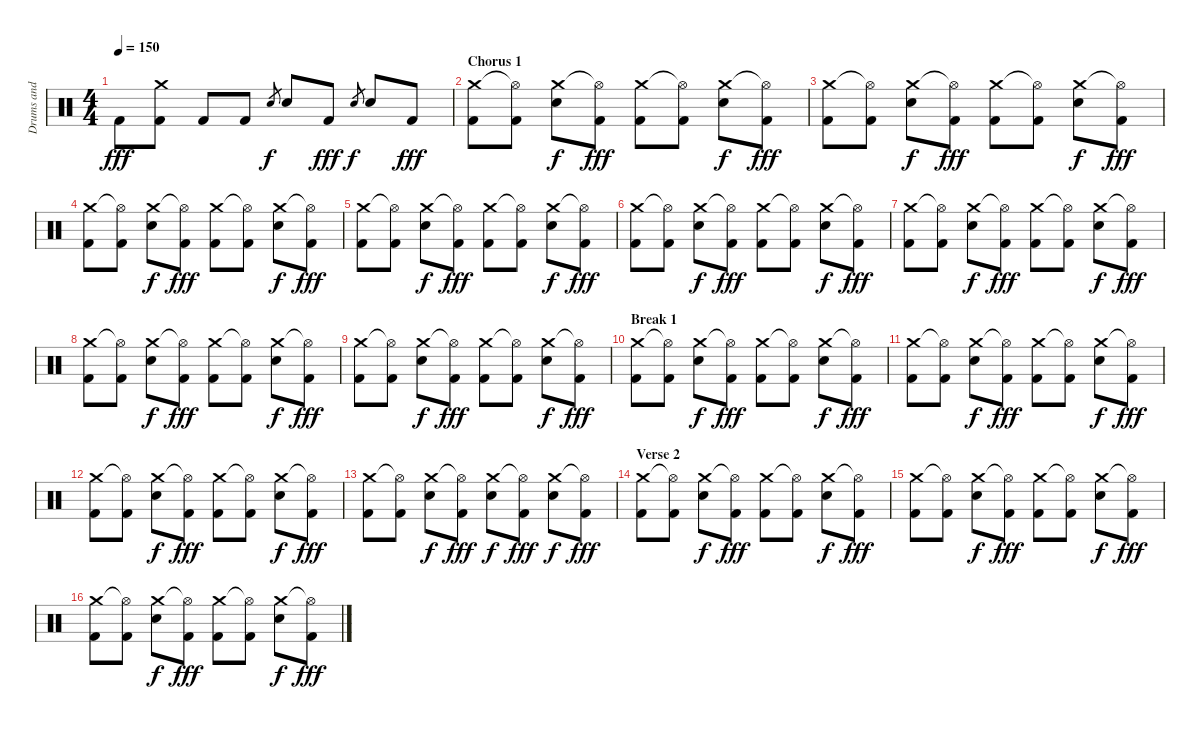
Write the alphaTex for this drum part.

\track ("Drums and Percussion" "Drums and ") {instrument percussion}
\staff {score}
\articulation defaults
\ts (4 4)
\tempo 150
\clef neutral
\ks c "Kick (hit) 2".8{dy fff}
("Crash medium (hit)" "Kick (hit) 2").8 "Kick (hit) 2".8 "Kick (hit) 2".8 "Electric Snare (hit)".8{gr dy f} "Electric Snare (hit)".8 "Kick (hit) 2".8{dy fff} "Electric Snare (hit)".8{gr dy f} "Electric Snare (hit)".8 "Kick (hit) 2".8{dy fff} |
\section ("" "Chorus 1")
("Crash medium (hit)" "Kick (hit) 2").8 ("Hi-Hat (open)"{t} "Kick (hit) 2").8 ("Crash medium (hit)" "Electric Snare (hit)").8{dy f} ("Hi-Hat (open)"{t} "Kick (hit) 2").8{dy fff} ("Crash medium (hit)" "Kick (hit) 2").8 ("Hi-Hat (open)"{t} "Kick (hit) 2").8 ("Crash medium (hit)" "Electric Snare (hit)").8{dy f} ("Hi-Hat (open)"{t} "Kick (hit) 2").8{dy fff} |
("Crash medium (hit)" "Kick (hit) 2").8 ("Hi-Hat (open)"{t} "Kick (hit) 2").8 ("Crash medium (hit)" "Electric Snare (hit)").8{dy f} ("Hi-Hat (open)"{t} "Kick (hit) 2").8{dy fff} ("Crash medium (hit)" "Kick (hit) 2").8 ("Hi-Hat (open)"{t} "Kick (hit) 2").8 ("Crash medium (hit)" "Electric Snare (hit)").8{dy f} ("Hi-Hat (open)"{t} "Kick (hit) 2").8{dy fff} |
("Crash medium (hit)" "Kick (hit) 2").8 ("Hi-Hat (open)"{t} "Kick (hit) 2").8 ("Crash medium (hit)" "Electric Snare (hit)").8{dy f} ("Hi-Hat (open)"{t} "Kick (hit) 2").8{dy fff} ("Crash medium (hit)" "Kick (hit) 2").8 ("Hi-Hat (open)"{t} "Kick (hit) 2").8 ("Crash medium (hit)" "Electric Snare (hit)").8{dy f} ("Hi-Hat (open)"{t} "Kick (hit) 2").8{dy fff} |
("Crash medium (hit)" "Kick (hit) 2").8 ("Hi-Hat (open)"{t} "Kick (hit) 2").8 ("Crash medium (hit)" "Electric Snare (hit)").8{dy f} ("Hi-Hat (open)"{t} "Kick (hit) 2").8{dy fff} ("Crash medium (hit)" "Kick (hit) 2").8 ("Hi-Hat (open)"{t} "Kick (hit) 2").8 ("Crash medium (hit)" "Electric Snare (hit)").8{dy f} ("Hi-Hat (open)"{t} "Kick (hit) 2").8{dy fff} |
("Crash medium (hit)" "Kick (hit) 2").8 ("Hi-Hat (open)"{t} "Kick (hit) 2").8 ("Crash medium (hit)" "Electric Snare (hit)").8{dy f} ("Hi-Hat (open)"{t} "Kick (hit) 2").8{dy fff} ("Crash medium (hit)" "Kick (hit) 2").8 ("Hi-Hat (open)"{t} "Kick (hit) 2").8 ("Crash medium (hit)" "Electric Snare (hit)").8{dy f} ("Hi-Hat (open)"{t} "Kick (hit) 2").8{dy fff} |
("Crash medium (hit)" "Kick (hit) 2").8 ("Hi-Hat (open)"{t} "Kick (hit) 2").8 ("Crash medium (hit)" "Electric Snare (hit)").8{dy f} ("Hi-Hat (open)"{t} "Kick (hit) 2").8{dy fff} ("Crash medium (hit)" "Kick (hit) 2").8 ("Hi-Hat (open)"{t} "Kick (hit) 2").8 ("Crash medium (hit)" "Electric Snare (hit)").8{dy f} ("Hi-Hat (open)"{t} "Kick (hit) 2").8{dy fff} |
("Crash medium (hit)" "Kick (hit) 2").8 ("Hi-Hat (open)"{t} "Kick (hit) 2").8 ("Crash medium (hit)" "Electric Snare (hit)").8{dy f} ("Hi-Hat (open)"{t} "Kick (hit) 2").8{dy fff} ("Crash medium (hit)" "Kick (hit) 2").8 ("Hi-Hat (open)"{t} "Kick (hit) 2").8 ("Crash medium (hit)" "Electric Snare (hit)").8{dy f} ("Hi-Hat (open)"{t} "Kick (hit) 2").8{dy fff} |
("Crash medium (hit)" "Kick (hit) 2").8 ("Hi-Hat (open)"{t} "Kick (hit) 2").8 ("Crash medium (hit)" "Electric Snare (hit)").8{dy f} ("Hi-Hat (open)"{t} "Kick (hit) 2").8{dy fff} ("Crash medium (hit)" "Kick (hit) 2").8 ("Hi-Hat (open)"{t} "Kick (hit) 2").8 ("Crash medium (hit)" "Electric Snare (hit)").8{dy f} ("Hi-Hat (open)"{t} "Kick (hit) 2").8{dy fff} |
\section ("" "Break 1")
("Crash medium (hit)" "Kick (hit) 2").8 ("Hi-Hat (open)"{t} "Kick (hit) 2").8 ("Crash medium (hit)" "Electric Snare (hit)").8{dy f} ("Hi-Hat (open)"{t} "Kick (hit) 2").8{dy fff} ("Crash medium (hit)" "Kick (hit) 2").8 ("Hi-Hat (open)"{t} "Kick (hit) 2").8 ("Crash medium (hit)" "Electric Snare (hit)").8{dy f} ("Hi-Hat (open)"{t} "Kick (hit) 2").8{dy fff} |
("Crash medium (hit)" "Kick (hit) 2").8 ("Hi-Hat (open)"{t} "Kick (hit) 2").8 ("Crash medium (hit)" "Electric Snare (hit)").8{dy f} ("Hi-Hat (open)"{t} "Kick (hit) 2").8{dy fff} ("Crash medium (hit)" "Kick (hit) 2").8 ("Hi-Hat (open)"{t} "Kick (hit) 2").8 ("Crash medium (hit)" "Electric Snare (hit)").8{dy f} ("Hi-Hat (open)"{t} "Kick (hit) 2").8{dy fff} |
("Crash medium (hit)" "Kick (hit) 2").8 ("Hi-Hat (open)"{t} "Kick (hit) 2").8 ("Crash medium (hit)" "Electric Snare (hit)").8{dy f} ("Hi-Hat (open)"{t} "Kick (hit) 2").8{dy fff} ("Crash medium (hit)" "Kick (hit) 2").8 ("Hi-Hat (open)"{t} "Kick (hit) 2").8 ("Crash medium (hit)" "Electric Snare (hit)").8{dy f} ("Hi-Hat (open)"{t} "Kick (hit) 2").8{dy fff} |
("Crash medium (hit)" "Kick (hit) 2").8 ("Hi-Hat (open)"{t} "Kick (hit) 2").8 ("Crash medium (hit)" "Electric Snare (hit)").8{dy f} ("Hi-Hat (open)"{t} "Kick (hit) 2").8{dy fff} ("Crash medium (hit)" "Electric Snare (hit)").8{dy f} ("Hi-Hat (open)"{t} "Kick (hit) 2").8{dy fff} ("Crash medium (hit)" "Electric Snare (hit)").8{dy f} ("Hi-Hat (open)"{t} "Kick (hit) 2").8{dy fff} |
\section ("" "Verse 2")
("Crash medium (hit)" "Kick (hit) 2").8 ("Hi-Hat (open)"{t} "Kick (hit) 2").8 ("Crash medium (hit)" "Electric Snare (hit)").8{dy f} ("Hi-Hat (open)"{t} "Kick (hit) 2").8{dy fff} ("Crash medium (hit)" "Kick (hit) 2").8 ("Hi-Hat (open)"{t} "Kick (hit) 2").8 ("Crash medium (hit)" "Electric Snare (hit)").8{dy f} ("Hi-Hat (open)"{t} "Kick (hit) 2").8{dy fff} |
("Crash medium (hit)" "Kick (hit) 2").8 ("Hi-Hat (open)"{t} "Kick (hit) 2").8 ("Crash medium (hit)" "Electric Snare (hit)").8{dy f} ("Hi-Hat (open)"{t} "Kick (hit) 2").8{dy fff} ("Crash medium (hit)" "Kick (hit) 2").8 ("Hi-Hat (open)"{t} "Kick (hit) 2").8 ("Crash medium (hit)" "Electric Snare (hit)").8{dy f} ("Hi-Hat (open)"{t} "Kick (hit) 2").8{dy fff} |
("Crash medium (hit)" "Kick (hit) 2").8 ("Hi-Hat (open)"{t} "Kick (hit) 2").8 ("Crash medium (hit)" "Electric Snare (hit)").8{dy f} ("Hi-Hat (open)"{t} "Kick (hit) 2").8{dy fff} ("Crash medium (hit)" "Kick (hit) 2").8 ("Hi-Hat (open)"{t} "Kick (hit) 2").8 ("Crash medium (hit)" "Electric Snare (hit)").8{dy f} ("Hi-Hat (open)"{t} "Kick (hit) 2").8{dy fff}
